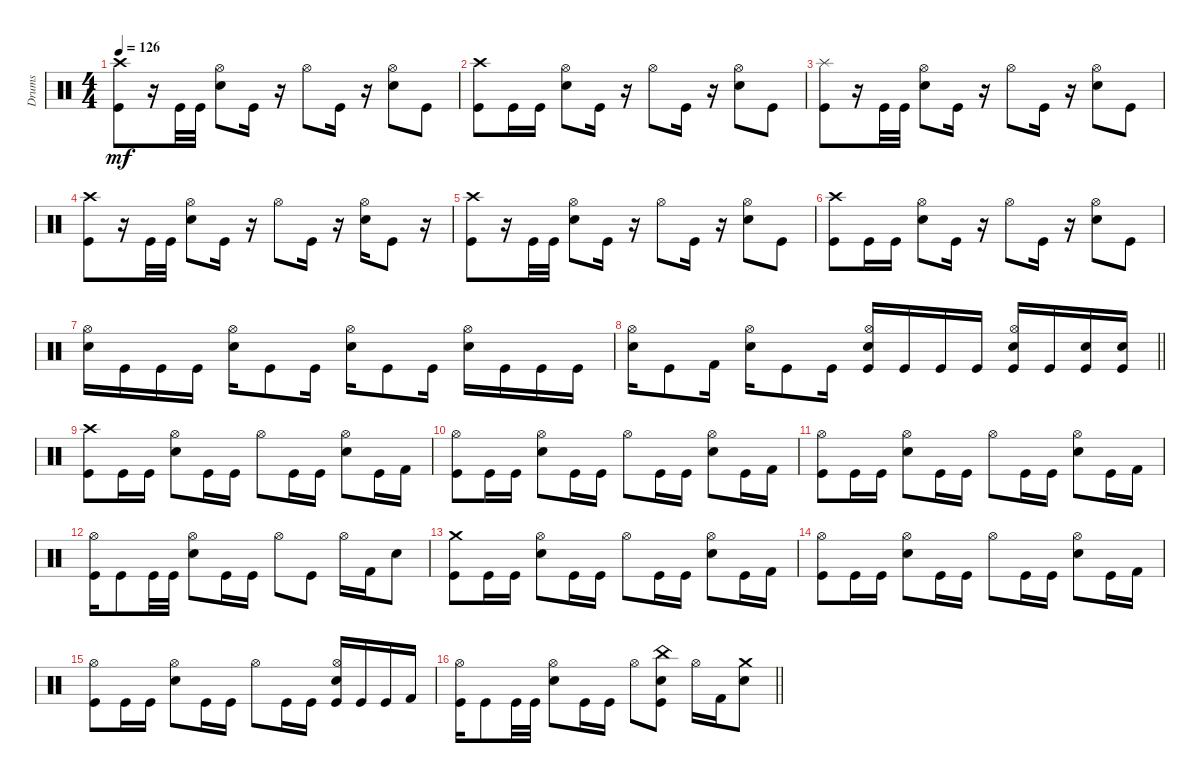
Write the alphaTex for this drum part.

\track ("Drums" "Drums") {instrument percussion bank 127}
\staff {score}
\articulation defaults
\ts (4 4)
\tempo 126
\clef neutral
\ks c
("Crash high (hit)" "Kick (hit)").8{dy mf} r.16 "Kick (hit)".32 "Kick (hit)".32 ("Hi-Hat (open)" "Snare (hit) 2").8 "Kick (hit)".16 r.16 "Hi-Hat (open)".8 "Kick (hit)".16 r.16 ("Hi-Hat (open)" "Snare (hit) 2").8 "Kick (hit)".8 |
("Crash high (hit)" "Kick (hit)").8 "Kick (hit)".16 "Kick (hit)".16 ("Hi-Hat (open)" "Snare (hit) 2").8 "Kick (hit)".16 r.16 "Hi-Hat (open)".8 "Kick (hit)".16 r.16 ("Hi-Hat (open)" "Snare (hit) 2").8 "Kick (hit)".8 |
("Splash (hit)" "Kick (hit)").8 r.16 "Kick (hit)".32 "Kick (hit)".32 ("Hi-Hat (open)" "Snare (hit) 2").8 "Kick (hit)".16 r.16 "Hi-Hat (open)".8 "Kick (hit)".16 r.16 ("Hi-Hat (open)" "Snare (hit) 2").8 "Kick (hit)".8 |
("Crash high (hit)" "Kick (hit)").8 r.16 "Kick (hit)".32 "Kick (hit)".32 ("Hi-Hat (open)" "Snare (hit) 2").8 "Kick (hit)".16 r.16 "Hi-Hat (open)".8 "Kick (hit)".16 r.16 ("Hi-Hat (open)" "Snare (hit) 2").16 "Kick (hit)".8 r.16 |
("Crash high (hit)" "Kick (hit)").8 r.16 "Kick (hit)".32 "Kick (hit)".32 ("Hi-Hat (open)" "Snare (hit) 2").8 "Kick (hit)".16 r.16 "Hi-Hat (open)".8 "Kick (hit)".16 r.16 ("Hi-Hat (open)" "Snare (hit) 2").8 "Kick (hit)".8 |
("Crash high (hit)" "Kick (hit)").8 "Kick (hit)".16 "Kick (hit)".16 ("Hi-Hat (open)" "Snare (hit) 2").8 "Kick (hit)".16 r.16 "Hi-Hat (open)".8 "Kick (hit)".16 r.16 ("Hi-Hat (open)" "Snare (hit) 2").8 "Kick (hit)".8 |
("Hi-Hat (open)" "Snare (hit) 2").16 "Kick (hit)".16 "Kick (hit)".16 "Kick (hit)".16 ("Hi-Hat (open)" "Snare (hit) 2").16 "Kick (hit)".8 "Kick (hit)".16 ("Hi-Hat (open)" "Snare (hit) 2").16 "Kick (hit)".8 "Kick (hit)".16 ("Hi-Hat (open)" "Snare (hit) 2").16 "Kick (hit)".16 "Kick (hit)".16 "Kick (hit)".16 |
\barLineRight lightlight
("Hi-Hat (open)" "Snare (hit) 2").16 "Kick (hit)".8 "Kick (hit) 2".16 ("Hi-Hat (open)" "Snare (hit) 2").16 "Kick (hit)".8 "Kick (hit)".16 ("Hi-Hat (open)" "Snare (hit) 2" "Kick (hit)").16 "Kick (hit)".16 "Kick (hit)".16 "Kick (hit)".16 ("Hi-Hat (open)" "Snare (hit) 2" "Kick (hit)").16 "Kick (hit)".16 ("Snare (hit) 2" "Kick (hit)").16 ("Snare (hit) 2" "Kick (hit)").16 |
("Crash high (hit)" "Kick (hit)").8 "Kick (hit)".16 "Kick (hit)".16 ("Hi-Hat (open)" "Snare (hit) 2").8 "Kick (hit)".16 "Kick (hit)".16 "Hi-Hat (open)".8 "Kick (hit)".16 "Kick (hit)".16 ("Hi-Hat (open)" "Snare (hit) 2").8 "Kick (hit)".16 "Kick (hit) 2".16 |
("Hi-Hat (open)" "Kick (hit)").8 "Kick (hit)".16 "Kick (hit)".16 ("Hi-Hat (open)" "Snare (hit) 2").8 "Kick (hit)".16 "Kick (hit)".16 "Hi-Hat (open)".8 "Kick (hit)".16 "Kick (hit)".16 ("Hi-Hat (open)" "Snare (hit) 2").8 "Kick (hit)".16 "Kick (hit) 2".16 |
("Hi-Hat (open)" "Kick (hit)").8 "Kick (hit)".16 "Kick (hit)".16 ("Hi-Hat (open)" "Snare (hit) 2").8 "Kick (hit)".16 "Kick (hit)".16 "Hi-Hat (open)".8 "Kick (hit)".16 "Kick (hit)".16 ("Hi-Hat (open)" "Snare (hit) 2").8 "Kick (hit)".16 "Kick (hit) 2".16 |
("Hi-Hat (open)" "Kick (hit)").16 "Kick (hit)".8 "Kick (hit)".32 "Kick (hit)".32 ("Hi-Hat (open)" "Snare (hit) 2").8 "Kick (hit)".16 "Kick (hit)".16 "Hi-Hat (open)".8 "Kick (hit)".8 "Hi-Hat (open)".16 "Kick (hit) 2".16 "Snare (hit) 2".8 |
("Crash medium (hit)" "Kick (hit)").8 "Kick (hit)".16 "Kick (hit)".16 ("Hi-Hat (open)" "Snare (hit) 2").8 "Kick (hit)".16 "Kick (hit)".16 "Hi-Hat (open)".8 "Kick (hit)".16 "Kick (hit)".16 ("Hi-Hat (open)" "Snare (hit) 2").8 "Kick (hit)".16 "Kick (hit) 2".16 |
("Hi-Hat (open)" "Kick (hit)").8 "Kick (hit)".16 "Kick (hit)".16 ("Hi-Hat (open)" "Snare (hit) 2").8 "Kick (hit)".16 "Kick (hit)".16 "Hi-Hat (open)".8 "Kick (hit)".16 "Kick (hit)".16 ("Hi-Hat (open)" "Snare (hit) 2").8 "Kick (hit)".16 "Kick (hit) 2".16 |
("Hi-Hat (open)" "Kick (hit)").8 "Kick (hit)".16 "Kick (hit)".16 ("Hi-Hat (open)" "Snare (hit) 2").8 "Kick (hit)".16 "Kick (hit)".16 "Hi-Hat (open)".8 "Kick (hit)".16 "Kick (hit)".16 ("Hi-Hat (open)" "Snare (hit) 2" "Kick (hit)").16 "Kick (hit)".16 "Kick (hit)".16 "Kick (hit) 2".16 |
\barLineRight lightlight
("Hi-Hat (open)" "Kick (hit)").16 "Kick (hit)".8 "Kick (hit)".32 "Kick (hit)".32 ("Hi-Hat (open)" "Snare (hit) 2").8 "Kick (hit)".16 "Kick (hit)".16 "Hi-Hat (open)".8 ("China (hit)" "Snare (hit) 2" "Kick (hit)").8 "Hi-Hat (open)".16 "Kick (hit) 2".16 ("Crash medium (hit)" "Snare (hit) 2").8
